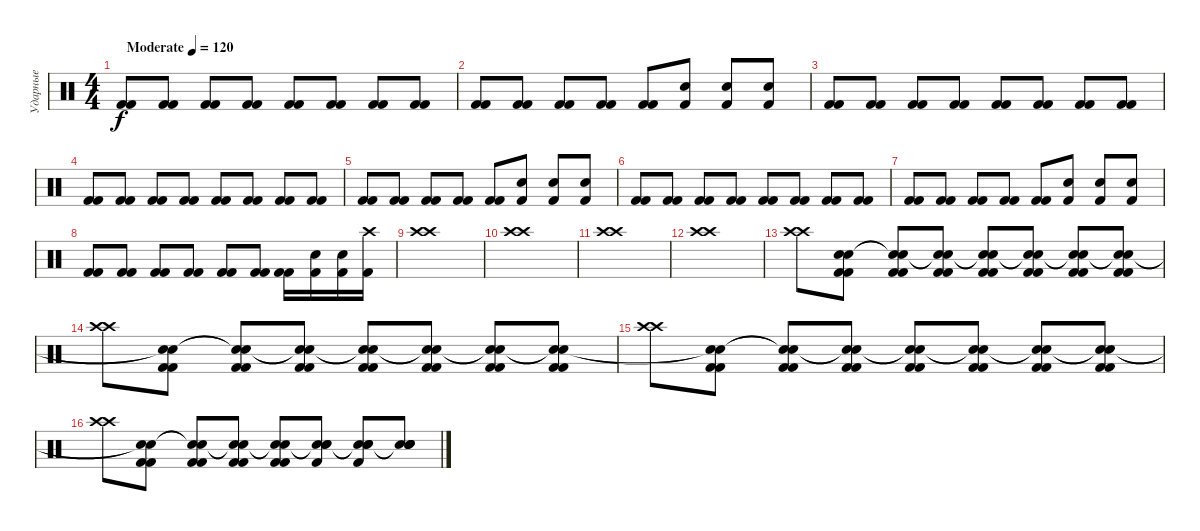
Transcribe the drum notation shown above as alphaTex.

\track ("Ударные" "Ударные") {instrument percussion}
\staff {score}
\articulation defaults
\ts (4 4)
\tempo (120 "Moderate")
\clef neutral
\ks c
("Kick (hit) 2" "Kick (hit) 2").8{dy f} ("Kick (hit) 2" "Kick (hit) 2").8 ("Kick (hit) 2" "Kick (hit) 2").8 ("Kick (hit) 2" "Kick (hit) 2").8 ("Kick (hit) 2" "Kick (hit) 2").8 ("Kick (hit) 2" "Kick (hit) 2").8 ("Kick (hit) 2" "Kick (hit) 2").8 ("Kick (hit) 2" "Kick (hit) 2").8 |
("Kick (hit) 2" "Kick (hit) 2").8 ("Kick (hit) 2" "Kick (hit) 2").8 ("Kick (hit) 2" "Kick (hit) 2").8 ("Kick (hit) 2" "Kick (hit) 2").8 ("Kick (hit) 2" "Kick (hit) 2").8 ("Kick (hit) 2" "Electric Snare (hit)").8 ("Kick (hit) 2" "Electric Snare (hit)").8 ("Kick (hit) 2" "Electric Snare (hit)").8 |
("Kick (hit) 2" "Kick (hit) 2").8 ("Kick (hit) 2" "Kick (hit) 2").8 ("Kick (hit) 2" "Kick (hit) 2").8 ("Kick (hit) 2" "Kick (hit) 2").8 ("Kick (hit) 2" "Kick (hit) 2").8 ("Kick (hit) 2" "Kick (hit) 2").8 ("Kick (hit) 2" "Kick (hit) 2").8 ("Kick (hit) 2" "Kick (hit) 2").8 |
("Kick (hit) 2" "Kick (hit) 2").8 ("Kick (hit) 2" "Kick (hit) 2").8 ("Kick (hit) 2" "Kick (hit) 2").8 ("Kick (hit) 2" "Kick (hit) 2").8 ("Kick (hit) 2" "Kick (hit) 2").8 ("Kick (hit) 2" "Kick (hit) 2").8 ("Kick (hit) 2" "Kick (hit) 2").8 ("Kick (hit) 2" "Kick (hit) 2").8 |
("Kick (hit) 2" "Kick (hit) 2").8 ("Kick (hit) 2" "Kick (hit) 2").8 ("Kick (hit) 2" "Kick (hit) 2").8 ("Kick (hit) 2" "Kick (hit) 2").8 ("Kick (hit) 2" "Kick (hit) 2").8 ("Kick (hit) 2" "Electric Snare (hit)").8 ("Kick (hit) 2" "Electric Snare (hit)").8 ("Kick (hit) 2" "Electric Snare (hit)").8 |
("Kick (hit) 2" "Kick (hit) 2").8 ("Kick (hit) 2" "Kick (hit) 2").8 ("Kick (hit) 2" "Kick (hit) 2").8 ("Kick (hit) 2" "Kick (hit) 2").8 ("Kick (hit) 2" "Kick (hit) 2").8 ("Kick (hit) 2" "Kick (hit) 2").8 ("Kick (hit) 2" "Kick (hit) 2").8 ("Kick (hit) 2" "Kick (hit) 2").8 |
("Kick (hit) 2" "Kick (hit) 2").8 ("Kick (hit) 2" "Kick (hit) 2").8 ("Kick (hit) 2" "Kick (hit) 2").8 ("Kick (hit) 2" "Kick (hit) 2").8 ("Kick (hit) 2" "Kick (hit) 2").8 ("Kick (hit) 2" "Electric Snare (hit)").8 ("Kick (hit) 2" "Electric Snare (hit)").8 ("Kick (hit) 2" "Electric Snare (hit)").8 |
("Kick (hit) 2" "Kick (hit) 2").8 ("Kick (hit) 2" "Kick (hit) 2").8 ("Kick (hit) 2" "Kick (hit) 2").8 ("Kick (hit) 2" "Kick (hit) 2").8 ("Kick (hit) 2" "Kick (hit) 2").8 ("Kick (hit) 2" "Kick (hit) 2").8 ("Kick (hit) 2" "Kick (hit) 2").16 ("Kick (hit) 2" "Electric Snare (hit)").16 ("Kick (hit) 2" "Electric Snare (hit)").16 ("Kick (hit) 2" "Crash high (hit)").16 |
("Crash high (hit)" "Crash high (hit)").1 |
("Crash high (hit)" "Crash high (hit)").1 |
("Crash high (hit)" "Crash high (hit)").1 |
("Crash high (hit)" "Crash high (hit)").1 |
("Crash high (hit)" "Crash high (hit)").8 ("Kick (hit) 2" "Kick (hit) 2" "Snare (hit)" "Snare (hit)").8 ("Kick (hit) 2" "Kick (hit) 2" "Snare (hit)"{t} "Snare (hit)"{t}).8 ("Kick (hit) 2" "Kick (hit) 2" "Snare (hit)"{t} "Snare (hit)"{t}).8 ("Kick (hit) 2" "Kick (hit) 2" "Snare (hit)"{t} "Snare (hit)"{t}).8 ("Kick (hit) 2" "Kick (hit) 2" "Snare (hit)"{t} "Snare (hit)"{t}).8 ("Kick (hit) 2" "Kick (hit) 2" "Snare (hit)"{t} "Snare (hit)"{t}).8 ("Kick (hit) 2" "Kick (hit) 2" "Snare (hit)"{t} "Snare (hit)"{t}).8 |
("Crash high (hit)" "Crash high (hit)").8 ("Kick (hit) 2" "Kick (hit) 2" "Snare (hit)"{t} "Snare (hit)"{t}).8 ("Kick (hit) 2" "Kick (hit) 2" "Snare (hit)"{t} "Snare (hit)"{t}).8 ("Kick (hit) 2" "Kick (hit) 2" "Snare (hit)"{t} "Snare (hit)"{t}).8 ("Kick (hit) 2" "Kick (hit) 2" "Snare (hit)"{t} "Snare (hit)"{t}).8 ("Kick (hit) 2" "Kick (hit) 2" "Snare (hit)"{t} "Snare (hit)"{t}).8 ("Kick (hit) 2" "Kick (hit) 2" "Snare (hit)"{t} "Snare (hit)"{t}).8 ("Kick (hit) 2" "Kick (hit) 2" "Snare (hit)"{t} "Snare (hit)"{t}).8 |
("Crash high (hit)" "Crash high (hit)").8 ("Kick (hit) 2" "Kick (hit) 2" "Snare (hit)"{t} "Snare (hit)"{t}).8 ("Kick (hit) 2" "Kick (hit) 2" "Snare (hit)"{t} "Snare (hit)"{t}).8 ("Kick (hit) 2" "Kick (hit) 2" "Snare (hit)"{t} "Snare (hit)"{t}).8 ("Kick (hit) 2" "Kick (hit) 2" "Snare (hit)"{t} "Snare (hit)"{t}).8 ("Kick (hit) 2" "Kick (hit) 2" "Snare (hit)"{t} "Snare (hit)"{t}).8 ("Kick (hit) 2" "Kick (hit) 2" "Snare (hit)"{t} "Snare (hit)"{t}).8 ("Kick (hit) 2" "Kick (hit) 2" "Snare (hit)"{t} "Snare (hit)"{t}).8 |
("Crash high (hit)" "Crash high (hit)").8 ("Kick (hit) 2" "Kick (hit) 2" "Snare (hit)"{t} "Snare (hit)"{t}).8 ("Kick (hit) 2" "Kick (hit) 2" "Snare (hit)"{t} "Snare (hit)"{t}).8 ("Kick (hit) 2" "Kick (hit) 2" "Snare (hit)"{t} "Snare (hit)"{t}).8 ("Kick (hit) 2" "Kick (hit) 2" "Snare (hit)"{t} "Snare (hit)"{t}).8 ("Electric Snare (hit)" "Kick (hit) 2" "Snare (hit)"{t} "Snare (hit)"{t}).8 ("Kick (hit) 2" "Electric Snare (hit)" "Snare (hit)"{t} "Snare (hit)"{t}).8 ("Electric Snare (hit)" "Electric Snare (hit)" "Snare (hit)"{t} "Snare (hit)"{t}).8
